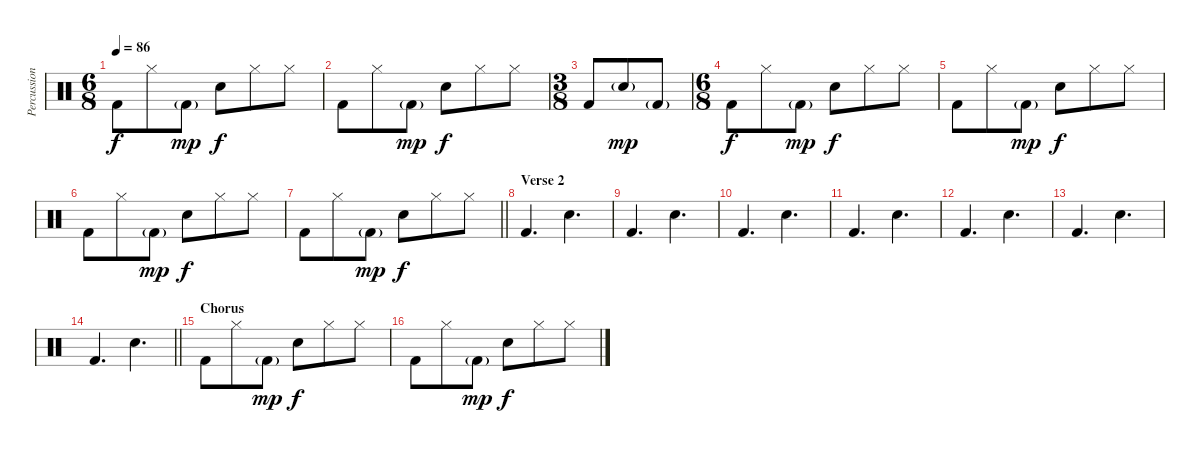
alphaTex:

\track ("Percussion" "Percussion") {instrument percussion}
\staff {score}
\articulation defaults
\ts (6 8)
\tempo 86
\clef neutral
\ks c "Kick (hit) 2".8{dy f} "Hi-Hat (closed)".8 "Kick (hit) 2"{g}.8{dy mp} "Snare (hit) 2".8{dy f} "Hi-Hat (closed)".8 "Hi-Hat (closed)".8
|
"Kick (hit) 2".8 "Hi-Hat (closed)".8 "Kick (hit) 2"{g}.8{dy mp} "Snare (hit) 2".8{dy f} "Hi-Hat (closed)".8 "Hi-Hat (closed)".8 |
\ts (3 8)
"Kick (hit) 2".8 "Snare (hit) 2"{g}.8{dy mp} "Kick (hit) 2"{g}.8 |
\ts (6 8)
"Kick (hit) 2".8{dy f} "Hi-Hat (closed)".8 "Kick (hit) 2"{g}.8{dy mp} "Snare (hit) 2".8{dy f} "Hi-Hat (closed)".8 "Hi-Hat (closed)".8 |
"Kick (hit) 2".8 "Hi-Hat (closed)".8 "Kick (hit) 2"{g}.8{dy mp} "Snare (hit) 2".8{dy f} "Hi-Hat (closed)".8 "Hi-Hat (closed)".8 |
"Kick (hit) 2".8 "Hi-Hat (closed)".8 "Kick (hit) 2"{g}.8{dy mp} "Snare (hit) 2".8{dy f} "Hi-Hat (closed)".8 "Hi-Hat (closed)".8 |
\barLineRight lightlight "Kick (hit) 2".8 "Hi-Hat (closed)".8 "Kick (hit) 2"{g}.8{dy mp} "Snare (hit) 2".8{dy f} "Hi-Hat (closed)".8 "Hi-Hat (closed)".8
|
\section ("" "Verse 2")
"Kick (hit) 2".4{d} "Snare (hit) 2".4{d} |
"Kick (hit) 2".4{d} "Snare (hit) 2".4{d} |
"Kick (hit) 2".4{d} "Snare (hit) 2".4{d} |
"Kick (hit) 2".4{d} "Snare (hit) 2".4{d} |
"Kick (hit) 2".4{d} "Snare (hit) 2".4{d} |
"Kick (hit) 2".4{d} "Snare (hit) 2".4{d} |
\barLineRight lightlight "Kick (hit) 2".4{d} "Snare (hit) 2".4{d}
|
\section ("" "Chorus")
"Kick (hit) 2".8 "Hi-Hat (closed)".8 "Kick (hit) 2"{g}.8{dy mp} "Snare (hit) 2".8{dy f} "Hi-Hat (closed)".8 "Hi-Hat (closed)".8 |
"Kick (hit) 2".8 "Hi-Hat (closed)".8 "Kick (hit) 2"{g}.8{dy mp} "Snare (hit) 2".8{dy f} "Hi-Hat (closed)".8 "Hi-Hat (closed)".8
